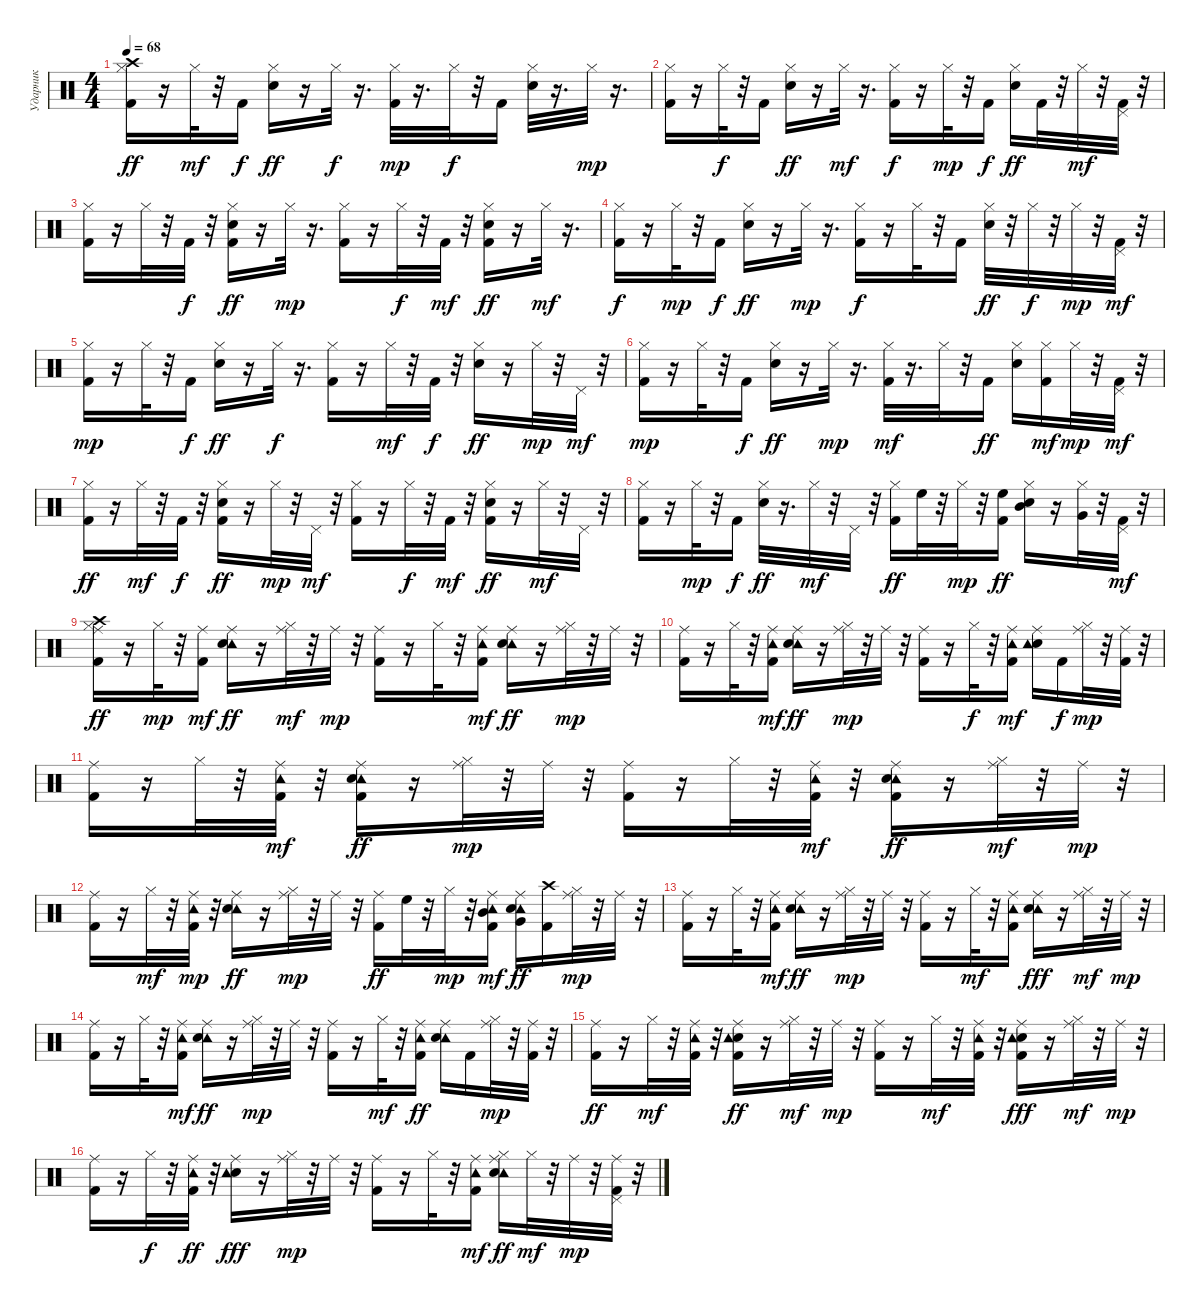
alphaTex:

\track ("Ударник" "Ударник") {instrument percussion}
\staff {score}
\articulation defaults
\ts (4 4)
\tempo 68
\clef neutral
\ks c
("Kick (hit) 2" "Hi-Hat (closed)" "Crash high (hit)").16{dy ff} r.16 "Hi-Hat (closed)".32{dy mf} r.32 "Kick (hit) 2".16{dy f} ("Hi-Hat (closed)" "Electric Snare (hit)").16{dy ff} r.16 "Hi-Hat (closed)".32{dy f} r.16{d} ("Kick (hit) 2" "Hi-Hat (closed)").32{dy mp} r.16{d} "Hi-Hat (closed)".32{dy f} r.32 "Kick (hit) 2".16 ("Hi-Hat (closed)" "Electric Snare (hit)").32 r.16{d} "Hi-Hat (closed)".32{dy mp} r.16{d} |
("Kick (hit) 2" "Hi-Hat (closed)").16 r.16 "Hi-Hat (closed)".32{dy f} r.32 "Kick (hit) 2".16 ("Hi-Hat (closed)" "Electric Snare (hit)").16{dy ff} r.16 "Hi-Hat (closed)".32{dy mf} r.16{d} ("Kick (hit) 2" "Hi-Hat (closed)").16{dy f} r.16 "Hi-Hat (closed)".32{dy mp} r.32 "Kick (hit) 2".16{dy f} ("Hi-Hat (closed)" "Electric Snare (hit)").16{dy ff} "Kick (hit) 2".32 r.32 "Hi-Hat (closed)".32{dy mf} r.32 ("Kick (hit) 2" "Pedal Hi-Hat (hit)").32 r.32 |
("Kick (hit) 2" "Hi-Hat (closed)").16 r.16 "Hi-Hat (closed)".32 r.32 "Kick (hit) 2".32{dy f} r.32 ("Hi-Hat (closed)" "Kick (hit) 2" "Electric Snare (hit)").16{dy ff} r.16 "Hi-Hat (closed)".32{dy mp} r.16{d} ("Kick (hit) 2" "Hi-Hat (closed)").16 r.16 "Hi-Hat (closed)".32{dy f} r.32 "Kick (hit) 2".32{dy mf} r.32 ("Kick (hit) 2" "Hi-Hat (closed)" "Electric Snare (hit)").16{dy ff} r.16 "Hi-Hat (closed)".32{dy mf} r.16{d} |
("Kick (hit) 2" "Hi-Hat (closed)").16{dy f} r.16 "Hi-Hat (closed)".32{dy mp} r.32 "Kick (hit) 2".16{dy f} ("Hi-Hat (closed)" "Electric Snare (hit)").16{dy ff} r.16 "Hi-Hat (closed)".32{dy mp} r.16{d} ("Kick (hit) 2" "Hi-Hat (closed)").16{dy f} r.16 "Hi-Hat (closed)".32 r.32 "Kick (hit) 2".16 ("Hi-Hat (closed)" "Electric Snare (hit)").32{dy ff} r.32 "Hi-Hat (closed)".32{dy f} r.32 "Hi-Hat (closed)".32{dy mp} r.32 ("Kick (hit) 2" "Pedal Hi-Hat (hit)").32{dy mf} r.32 |
("Hi-Hat (closed)" "Kick (hit) 2").16{dy mp} r.16 "Hi-Hat (closed)".32 r.32 "Kick (hit) 2".16{dy f} ("Hi-Hat (closed)" "Electric Snare (hit)").16{dy ff} r.16 "Hi-Hat (closed)".32{dy f} r.16{d} ("Kick (hit) 2" "Hi-Hat (closed)").16 r.16 "Hi-Hat (closed)".32{dy mf} r.32 "Kick (hit) 2".32{dy f} r.32 ("Electric Snare (hit)" "Hi-Hat (closed)").16{dy ff} r.16 "Hi-Hat (closed)".32{dy mp} r.32 "Pedal Hi-Hat (hit)".32{dy mf} r.32 |
("Kick (hit) 2" "Hi-Hat (closed)").16{dy mp} r.16 "Hi-Hat (closed)".32 r.32 "Kick (hit) 2".16{dy f} ("Hi-Hat (closed)" "Electric Snare (hit)").16{dy ff} r.16 "Hi-Hat (closed)".32{dy mp} r.16{d} ("Kick (hit) 2" "Hi-Hat (closed)").32{dy mf} r.16{d} "Hi-Hat (closed)".32 r.32 "Kick (hit) 2".16{dy ff} ("Hi-Hat (closed)" "Electric Snare (hit)").16 ("Kick (hit) 2" "Hi-Hat (closed)").16{dy mf} "Hi-Hat (closed)".32{dy mp} r.32 ("Kick (hit) 2" "Pedal Hi-Hat (hit)").32{dy mf} r.32 |
("Kick (hit) 2" "Hi-Hat (closed)").16{dy ff} r.16 "Hi-Hat (closed)".32{dy mf} r.32 "Kick (hit) 2".32{dy f} r.32 ("Kick (hit) 2" "Hi-Hat (closed)" "Electric Snare (hit)").16{dy ff} r.16 "Hi-Hat (closed)".32{dy mp} r.32 "Pedal Hi-Hat (hit)".32{dy mf} r.32 ("Kick (hit) 2" "Hi-Hat (closed)").16 r.16 "Hi-Hat (closed)".32{dy f} r.32 "Kick (hit) 2".32{dy mf} r.32 ("Kick (hit) 2" "Hi-Hat (closed)" "Electric Snare (hit)").16{dy ff} r.16 "Hi-Hat (closed)".32{dy mf} r.32 "Pedal Hi-Hat (hit)".32 r.32 |
("Hi-Hat (closed)" "Kick (hit) 2").16 r.16 "Hi-Hat (closed)".32{dy mp} r.32 "Kick (hit) 2".16{dy f} ("Hi-Hat (closed)" "Electric Snare (hit)").32{dy ff} r.16{d} "Hi-Hat (closed)".32{dy mf} r.32 "Pedal Hi-Hat (hit)".32 r.32 ("Hi-Hat (closed)" "Kick (hit) 2").16{dy ff} "High Floor Tom (hit)".32 r.32 "Hi-Hat (closed)".32{dy mp} r.32 ("Kick (hit) 2" "High Floor Tom (hit)").16{dy ff} ("Mid Tom (hit)" "Hi-Hat (closed)" "Electric Snare (hit)").16 r.16 ("Hi-Hat (closed)" "Very Low Tom (hit)").32 r.32 ("Kick (hit) 2" "Pedal Hi-Hat (hit)").32{dy mf} r.32 |
("Hi-Hat (closed)" "Kick (hit) 2" "Ride (middle)" "Crash high (hit)").16{dy ff} r.16 "Hi-Hat (closed)".32{dy mp} r.32 ("Ride (middle)" "Kick (hit) 2").16{dy mf} ("Ride (middle)" "Tambourine (hit)" "Electric Snare (hit)").16{dy ff} r.16 ("Ride (middle)" "Hi-Hat (closed)").32{dy mf} r.32 "Ride (middle)".32{dy mp} r.32 ("Kick (hit) 2" "Ride (middle)").16 r.16 "Hi-Hat (closed)".32 r.32 ("Kick (hit) 2" "Tambourine (hit)" "Ride (middle)").16{dy mf} ("Ride (middle)" "Tambourine (hit)" "Electric Snare (hit)").16{dy ff} r.16 ("Hi-Hat (closed)" "Ride (middle)").32{dy mp} r.32 "Ride (middle)".32 r.32 |
("Kick (hit) 2" "Ride (middle)").16 r.16 "Hi-Hat (closed)".32 r.32 ("Ride (middle)" "Tambourine (hit)" "Kick (hit) 2").16{dy mf} ("Ride (middle)" "Tambourine (hit)" "Electric Snare (hit)").16{dy ff} r.16 ("Hi-Hat (closed)" "Ride (middle)").32{dy mp} r.32 "Ride (middle)".32 r.32 ("Ride (middle)" "Kick (hit) 2").16 r.16 "Hi-Hat (closed)".32{dy f} r.32 ("Ride (middle)" "Kick (hit) 2" "Tambourine (hit)").16{dy mf} ("Electric Snare (hit)" "Tambourine (hit)" "Ride (middle)").16 "Kick (hit) 2".16{dy f} ("Hi-Hat (closed)" "Ride (middle)").32{dy mp} r.32 ("Kick (hit) 2" "Ride (middle)").32 r.32 |
("Kick (hit) 2" "Ride (middle)").16 r.16 "Hi-Hat (closed)".32 r.32 ("Kick (hit) 2" "Ride (middle)" "Tambourine (hit)").32{dy mf} r.32 ("Ride (middle)" "Kick (hit) 2" "Tambourine (hit)" "Electric Snare (hit)").16{dy ff} r.16 ("Ride (middle)" "Hi-Hat (closed)").32{dy mp} r.32 "Ride (middle)".32 r.32 ("Kick (hit) 2" "Ride (middle)").16 r.16 "Hi-Hat (closed)".32 r.32 ("Kick (hit) 2" "Ride (middle)" "Tambourine (hit)").32{dy mf} r.32 ("Kick (hit) 2" "Tambourine (hit)" "Ride (middle)" "Electric Snare (hit)").16{dy ff} r.16 ("Ride (middle)" "Hi-Hat (closed)").32{dy mf} r.32 "Ride (middle)".32{dy mp} r.32 |
("Ride (middle)" "Kick (hit) 2").16 r.16 "Hi-Hat (closed)".32{dy mf} r.32 ("Kick (hit) 2" "Ride (middle)" "Tambourine (hit)").32{dy mp} r.32 ("Ride (middle)" "Tambourine (hit)" "Electric Snare (hit)").16{dy ff} r.16 ("Hi-Hat (closed)" "Ride (middle)").32{dy mp} r.32 "Ride (middle)".32 r.32 ("Ride (middle)" "Kick (hit) 2").16{dy ff} "High Floor Tom (hit)".32 r.32 "Hi-Hat (closed)".32{dy mp} r.32 ("Kick (hit) 2" "Ride (middle)" "Tambourine (hit)" "Mid Tom (hit)").16{dy mf} ("Ride (middle)" "Very Low Tom (hit)" "Tambourine (hit)" "Electric Snare (hit)").16{dy ff} ("Kick (hit) 2" "Crash high (hit)").16 ("Ride (middle)" "Hi-Hat (closed)").32{dy mp} r.32 "Ride (middle)".32 r.32 |
("Kick (hit) 2" "Ride (middle)").16 r.16 "Hi-Hat (closed)".32 r.32 ("Kick (hit) 2" "Ride (middle)" "Tambourine (hit)").16{dy mf} ("Ride (middle)" "Tambourine (hit)" "Electric Snare (hit)").16{dy ff} r.16 ("Ride (middle)" "Hi-Hat (closed)").32{dy mp} r.32 "Ride (middle)".32 r.32 ("Ride (middle)" "Kick (hit) 2").16 r.16 "Hi-Hat (closed)".32{dy mf} r.32 ("Tambourine (hit)" "Kick (hit) 2" "Ride (middle)").16 ("Ride (middle)" "Tambourine (hit)" "Electric Snare (hit)").16{dy fff} r.16 ("Ride (middle)" "Hi-Hat (closed)").32{dy mf} r.32 "Ride (middle)".32{dy mp} r.32 |
("Kick (hit) 2" "Ride (middle)").16 r.16 "Hi-Hat (closed)".32 r.32 ("Ride (middle)" "Kick (hit) 2" "Tambourine (hit)").16{dy mf} ("Ride (middle)" "Tambourine (hit)" "Electric Snare (hit)").16{dy ff} r.16 ("Hi-Hat (closed)" "Ride (middle)").32{dy mp} r.32 "Ride (middle)".32 r.32 ("Kick (hit) 2" "Ride (middle)").16 r.16 "Hi-Hat (closed)".32{dy mf} r.32 ("Ride (middle)" "Kick (hit) 2" "Tambourine (hit)").16{dy ff} ("Ride (middle)" "Tambourine (hit)" "Electric Snare (hit)").16 "Kick (hit) 2".16 ("Hi-Hat (closed)" "Ride (middle)").32{dy mp} r.32 ("Kick (hit) 2" "Ride (middle)").32 r.32 |
("Ride (middle)" "Kick (hit) 2").16{dy ff} r.16 "Hi-Hat (closed)".32{dy mf} r.32 ("Kick (hit) 2" "Ride (middle)" "Tambourine (hit)").32 r.32 ("Ride (middle)" "Kick (hit) 2" "Electric Snare (hit)" "Tambourine (hit)").16{dy ff} r.16 ("Ride (middle)" "Hi-Hat (closed)").32{dy mf} r.32 "Ride (middle)".32{dy mp} r.32 ("Kick (hit) 2" "Ride (middle)").16 r.16 "Hi-Hat (closed)".32{dy mf} r.32 ("Kick (hit) 2" "Ride (middle)" "Tambourine (hit)").32 r.32 ("Ride (middle)" "Kick (hit) 2" "Electric Snare (hit)" "Tambourine (hit)").16{dy fff} r.16 ("Ride (middle)" "Hi-Hat (closed)").32{dy mf} r.32 "Ride (middle)".32{dy mp} r.32 |
("Kick (hit) 2" "Ride (middle)").16 r.16 "Hi-Hat (closed)".32{dy f} r.32 ("Tambourine (hit)" "Ride (middle)" "Kick (hit) 2").32{dy ff} r.32 ("Ride (middle)" "Electric Snare (hit)" "Tambourine (hit)").16{dy fff} r.16 ("Hi-Hat (closed)" "Ride (middle)").32{dy mp} r.32 "Ride (middle)".32 r.32 ("Ride (middle)" "Kick (hit) 2").16 r.16 "Hi-Hat (closed)".32 r.32 ("Ride (middle)" "Kick (hit) 2" "Tambourine (hit)").16{dy mf} ("Ride (middle)" "Hi-Hat (closed)" "Tambourine (hit)" "Electric Snare (hit)").16{dy ff} "Hi-Hat (closed)".32{dy mf} r.32 "Ride (middle)".32{dy mp} r.32 ("Pedal Hi-Hat (hit)" "Kick (hit) 2" "Ride (middle)").32 r.32
